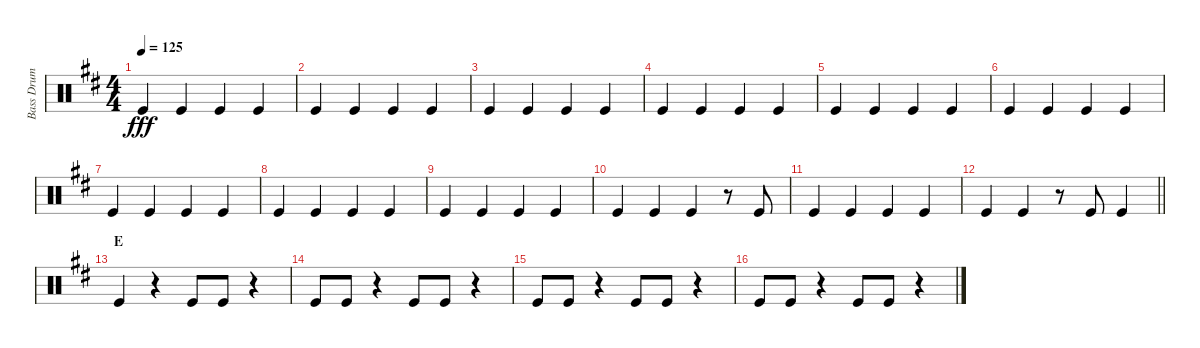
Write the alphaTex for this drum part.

\track ("Bass Drum" "Bass Drum") {instrument percussion}
\staff {score}
\articulation defaults
\ts (4 4)
\tempo 125
\clef neutral
\ks d "Kick (hit)".4{dy fff} "Kick (hit)".4 "Kick (hit)".4 "Kick (hit)".4
|
"Kick (hit)".4 "Kick (hit)".4 "Kick (hit)".4 "Kick (hit)".4 |
"Kick (hit)".4 "Kick (hit)".4 "Kick (hit)".4 "Kick (hit)".4 |
"Kick (hit)".4 "Kick (hit)".4 "Kick (hit)".4 "Kick (hit)".4 |
"Kick (hit)".4 "Kick (hit)".4 "Kick (hit)".4 "Kick (hit)".4 |
"Kick (hit)".4 "Kick (hit)".4 "Kick (hit)".4 "Kick (hit)".4 |
"Kick (hit)".4 "Kick (hit)".4 "Kick (hit)".4 "Kick (hit)".4 |
"Kick (hit)".4 "Kick (hit)".4 "Kick (hit)".4 "Kick (hit)".4 |
"Kick (hit)".4 "Kick (hit)".4 "Kick (hit)".4 "Kick (hit)".4 |
"Kick (hit)".4 "Kick (hit)".4 "Kick (hit)".4 r.8 "Kick (hit)".8 |
"Kick (hit)".4 "Kick (hit)".4 "Kick (hit)".4 "Kick (hit)".4 |
\barLineRight lightlight "Kick (hit)".4 "Kick (hit)".4
r.8 "Kick (hit)".8 "Kick (hit)".4 |
\section ("" "E")
"Kick (hit)".4 r.4 "Kick (hit)".8 "Kick (hit)".8 r.4 |
"Kick (hit)".8 "Kick (hit)".8 r.4 "Kick (hit)".8 "Kick (hit)".8 r.4 |
"Kick (hit)".8 "Kick (hit)".8 r.4 "Kick (hit)".8 "Kick (hit)".8 r.4 |
"Kick (hit)".8 "Kick (hit)".8 r.4 "Kick (hit)".8 "Kick (hit)".8 r.4
